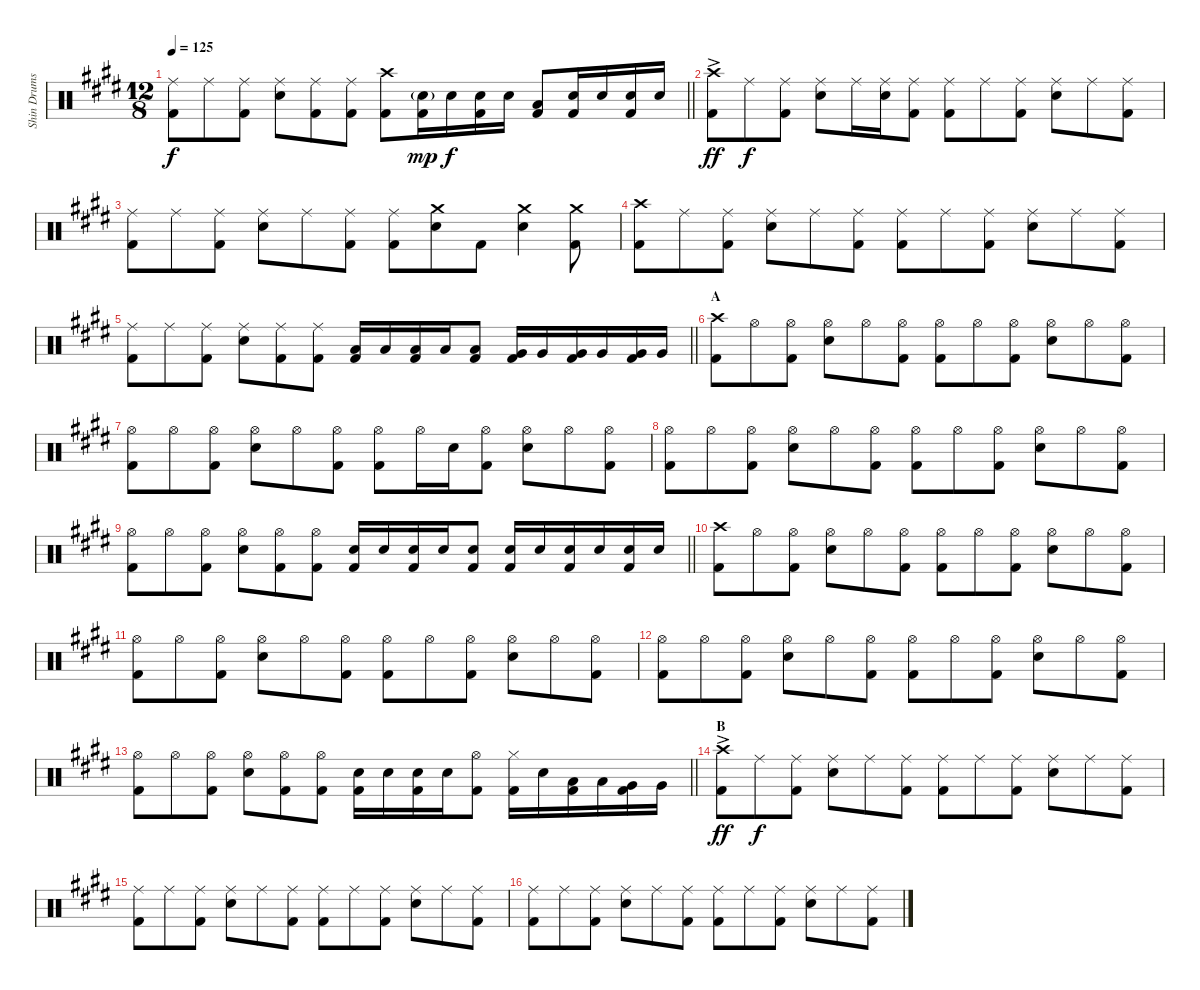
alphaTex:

\track ("Shin Drums" "Shin Drums") {instrument percussion}
\staff {score}
\articulation defaults
\ts (12 8)
\tempo 125
\clef neutral
\barLineRight lightlight
\ks e
("Ride (middle)" "Kick (hit) 2").8{dy f} "Ride (middle)".8 ("Ride (middle)" "Kick (hit) 2").8 ("Ride (middle)" "Snare (hit) 2").8 ("Ride (middle)" "Kick (hit) 2").8 ("Ride (middle)" "Kick (hit) 2").8 ("Crash high (hit)" "Kick (hit) 2").8 ("Kick (hit) 2" "Snare (hit) 2"{g}).16{dy mp} "Snare (hit) 2".16{dy f} ("Snare (hit) 2" "Kick (hit) 2").16 "Snare (hit) 2".16 ("Low Tom (hit)" "Kick (hit) 2").8 ("Snare (hit) 2" "Kick (hit) 2").16 "Snare (hit) 2".16 ("Snare (hit) 2" "Kick (hit) 2").16 "Snare (hit) 2".16 |
("Crash high (hit)"{ac} "Kick (hit) 2").8{dy ff} "Ride (middle)".8{dy f} ("Ride (middle)" "Kick (hit) 2").8 ("Ride (middle)" "Snare (hit) 2").8 "Ride (middle)".16 ("Ride (middle)" "Snare (hit) 2").16 ("Ride (middle)" "Kick (hit) 2").8 ("Ride (middle)" "Kick (hit) 2").8 "Ride (middle)".8 ("Ride (middle)" "Kick (hit) 2").8 ("Ride (middle)" "Snare (hit) 2").8 "Ride (middle)".8 ("Ride (middle)" "Kick (hit) 2").8 |
("Ride (middle)" "Kick (hit) 2").8 "Ride (middle)".8 ("Ride (middle)" "Kick (hit) 2").8 ("Ride (middle)" "Snare (hit) 2").8 "Ride (middle)".8 ("Ride (middle)" "Kick (hit) 2").8 ("Ride (middle)" "Kick (hit) 2").8 ("Crash medium (hit)" "Snare (hit) 2").8 "Kick (hit) 2".8 ("Crash medium (hit)" "Snare (hit) 2").4 ("Crash medium (hit)" "Kick (hit) 2").8 |
("Crash high (hit)" "Kick (hit) 2").8 "Ride (middle)".8 ("Ride (middle)" "Kick (hit) 2").8 ("Ride (middle)" "Snare (hit) 2").8 "Ride (middle)".8 ("Ride (middle)" "Kick (hit) 2").8 ("Ride (middle)" "Kick (hit) 2").8 "Ride (middle)".8 ("Ride (middle)" "Kick (hit) 2").8 ("Ride (middle)" "Snare (hit) 2").8 "Ride (middle)".8 ("Ride (middle)" "Kick (hit) 2").8 |
\barLineRight lightlight
("Ride (middle)" "Kick (hit) 2").8 "Ride (middle)".8 ("Ride (middle)" "Kick (hit) 2").8 ("Ride (middle)" "Snare (hit) 2").8 ("Ride (middle)" "Kick (hit) 2").8 ("Ride (middle)" "Kick (hit) 2").8 ("Low Tom (hit)" "Kick (hit) 2").16 "Low Tom (hit)".16 ("Low Tom (hit)" "Kick (hit) 2").16 "Low Tom (hit)".16 ("Low Tom (hit)" "Kick (hit) 2").8 ("Very Low Tom (hit)" "Kick (hit) 2").16 "Very Low Tom (hit)".16 ("Very Low Tom (hit)" "Kick (hit) 2").16 "Very Low Tom (hit)".16 ("Very Low Tom (hit)" "Kick (hit) 2").16 "Very Low Tom (hit)".16 |
\section ("" "A")
("Crash high (hit)" "Kick (hit) 2").8 "Hi-Hat (open)".8 ("Hi-Hat (open)" "Kick (hit) 2").8 ("Hi-Hat (open)" "Snare (hit) 2").8 "Hi-Hat (open)".8 ("Hi-Hat (open)" "Kick (hit) 2").8 ("Hi-Hat (open)" "Kick (hit) 2").8 "Hi-Hat (open)".8 ("Hi-Hat (open)" "Kick (hit) 2").8 ("Hi-Hat (open)" "Snare (hit) 2").8 "Hi-Hat (open)".8 ("Hi-Hat (open)" "Kick (hit) 2").8 |
("Hi-Hat (open)" "Kick (hit) 2").8 "Hi-Hat (open)".8 ("Hi-Hat (open)" "Kick (hit) 2").8 ("Hi-Hat (open)" "Snare (hit) 2").8 "Hi-Hat (open)".8 ("Hi-Hat (open)" "Kick (hit) 2").8 ("Hi-Hat (open)" "Kick (hit) 2").8 "Hi-Hat (open)".16 "Snare (hit) 2".16 ("Hi-Hat (open)" "Kick (hit) 2").8 ("Hi-Hat (open)" "Snare (hit) 2").8 "Hi-Hat (open)".8 ("Hi-Hat (open)" "Kick (hit) 2").8 |
("Hi-Hat (open)" "Kick (hit) 2").8 "Hi-Hat (open)".8 ("Hi-Hat (open)" "Kick (hit) 2").8 ("Hi-Hat (open)" "Snare (hit) 2").8 "Hi-Hat (open)".8 ("Hi-Hat (open)" "Kick (hit) 2").8 ("Hi-Hat (open)" "Kick (hit) 2").8 "Hi-Hat (open)".8 ("Hi-Hat (open)" "Kick (hit) 2").8 ("Hi-Hat (open)" "Snare (hit) 2").8 "Hi-Hat (open)".8 ("Hi-Hat (open)" "Kick (hit) 2").8 |
\barLineRight lightlight
("Hi-Hat (open)" "Kick (hit) 2").8 "Hi-Hat (open)".8 ("Hi-Hat (open)" "Kick (hit) 2").8 ("Hi-Hat (open)" "Snare (hit) 2").8 ("Hi-Hat (open)" "Kick (hit) 2").8 ("Hi-Hat (open)" "Kick (hit) 2").8 ("Snare (hit) 2" "Kick (hit) 2").16 "Snare (hit) 2".16 ("Snare (hit) 2" "Kick (hit) 2").16 "Snare (hit) 2".16 ("Snare (hit) 2" "Kick (hit) 2").8 ("Snare (hit) 2" "Kick (hit) 2").16 "Snare (hit) 2".16 ("Snare (hit) 2" "Kick (hit) 2").16 "Snare (hit) 2".16 ("Snare (hit) 2" "Kick (hit) 2").16 "Snare (hit) 2".16 |
("Crash high (hit)" "Kick (hit) 2").8 "Hi-Hat (open)".8 ("Hi-Hat (open)" "Kick (hit) 2").8 ("Hi-Hat (open)" "Snare (hit) 2").8 "Hi-Hat (open)".8 ("Hi-Hat (open)" "Kick (hit) 2").8 ("Hi-Hat (open)" "Kick (hit) 2").8 "Hi-Hat (open)".8 ("Hi-Hat (open)" "Kick (hit) 2").8 ("Hi-Hat (open)" "Snare (hit) 2").8 "Hi-Hat (open)".8 ("Hi-Hat (open)" "Kick (hit) 2").8 |
("Hi-Hat (open)" "Kick (hit) 2").8 "Hi-Hat (open)".8 ("Hi-Hat (open)" "Kick (hit) 2").8 ("Hi-Hat (open)" "Snare (hit) 2").8 "Hi-Hat (open)".8 ("Hi-Hat (open)" "Kick (hit) 2").8 ("Hi-Hat (open)" "Kick (hit) 2").8 "Hi-Hat (open)".8 ("Hi-Hat (open)" "Kick (hit) 2").8 ("Hi-Hat (open)" "Snare (hit) 2").8 "Hi-Hat (open)".8 ("Hi-Hat (open)" "Kick (hit) 2").8 |
("Hi-Hat (open)" "Kick (hit) 2").8 "Hi-Hat (open)".8 ("Hi-Hat (open)" "Kick (hit) 2").8 ("Hi-Hat (open)" "Snare (hit) 2").8 "Hi-Hat (open)".8 ("Hi-Hat (open)" "Kick (hit) 2").8 ("Hi-Hat (open)" "Kick (hit) 2").8 "Hi-Hat (open)".8 ("Hi-Hat (open)" "Kick (hit) 2").8 ("Hi-Hat (open)" "Snare (hit) 2").8 "Hi-Hat (open)".8 ("Hi-Hat (open)" "Kick (hit) 2").8 |
\barLineRight lightlight
("Hi-Hat (open)" "Kick (hit) 2").8 "Hi-Hat (open)".8 ("Hi-Hat (open)" "Kick (hit) 2").8 ("Hi-Hat (open)" "Snare (hit) 2").8 ("Hi-Hat (open)" "Kick (hit) 2").8 ("Hi-Hat (open)" "Kick (hit) 2").8 ("Snare (hit) 2" "Kick (hit) 2").16 "Snare (hit) 2".16 ("Snare (hit) 2" "Kick (hit) 2").16 "Snare (hit) 2".16 ("Hi-Hat (open)" "Kick (hit) 2").8 ("Hi-Hat (closed)" "Kick (hit) 2").16 "Snare (hit) 2".16 ("Low Tom (hit)" "Kick (hit) 2").16 "Low Tom (hit)".16 ("Very Low Tom (hit)" "Kick (hit) 2").16 "Very Low Tom (hit)".16 |
\section ("" "B")
("Crash high (hit)"{ac} "Kick (hit) 2").8{dy ff} "Ride (middle)".8{dy f} ("Ride (middle)" "Kick (hit) 2").8 ("Ride (middle)" "Snare (hit) 2").8 "Ride (middle)".8 ("Ride (middle)" "Kick (hit) 2").8 ("Ride (middle)" "Kick (hit) 2").8 "Ride (middle)".8 ("Ride (middle)" "Kick (hit) 2").8 ("Ride (middle)" "Snare (hit) 2").8 "Ride (middle)".8 ("Ride (middle)" "Kick (hit) 2").8 |
("Ride (middle)" "Kick (hit) 2").8 "Ride (middle)".8 ("Ride (middle)" "Kick (hit) 2").8 ("Ride (middle)" "Snare (hit) 2").8 "Ride (middle)".8 ("Ride (middle)" "Kick (hit) 2").8 ("Ride (middle)" "Kick (hit) 2").8 "Ride (middle)".8 ("Ride (middle)" "Kick (hit) 2").8 ("Ride (middle)" "Snare (hit) 2").8 "Ride (middle)".8 ("Ride (middle)" "Kick (hit) 2").8 |
("Ride (middle)" "Kick (hit) 2").8 "Ride (middle)".8 ("Ride (middle)" "Kick (hit) 2").8 ("Ride (middle)" "Snare (hit) 2").8 "Ride (middle)".8 ("Ride (middle)" "Kick (hit) 2").8 ("Ride (middle)" "Kick (hit) 2").8 "Ride (middle)".8 ("Ride (middle)" "Kick (hit) 2").8 ("Ride (middle)" "Snare (hit) 2").8 "Ride (middle)".8 ("Ride (middle)" "Kick (hit) 2").8
